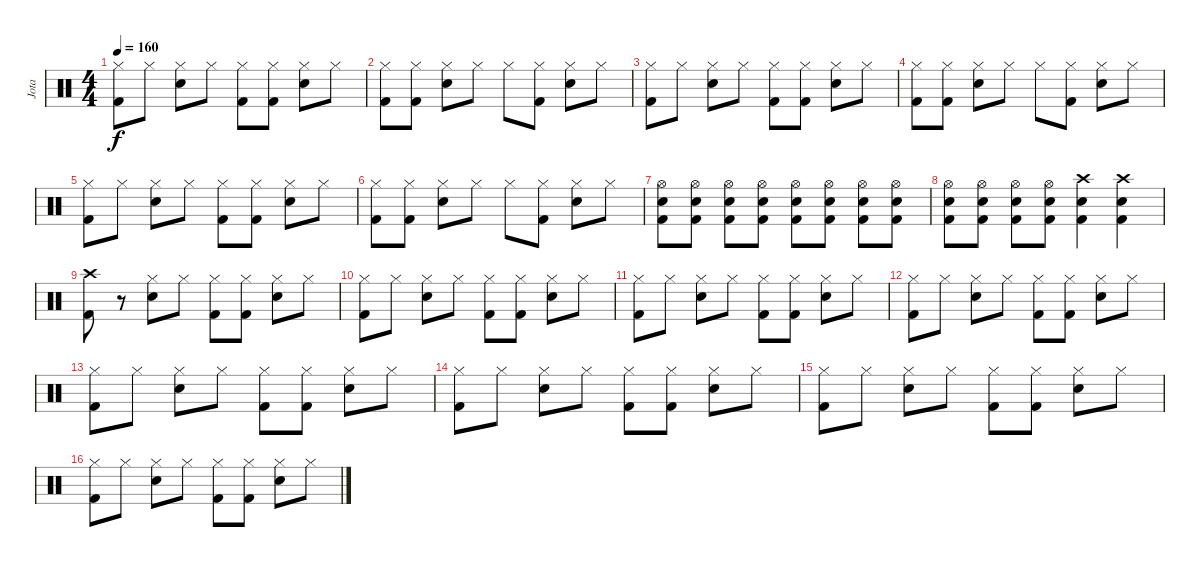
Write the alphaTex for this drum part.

\track ("Jota" "Jota") {instrument percussion}
\staff {score}
\articulation defaults
\ts (4 4)
\tempo 160
\clef neutral
\ks c
("Hi-Hat (closed)" "Kick (hit) 2").8{dy f} "Hi-Hat (closed)".8 ("Hi-Hat (closed)" "Electric Snare (hit)").8 "Hi-Hat (closed)".8 ("Hi-Hat (closed)" "Kick (hit) 2").8 ("Hi-Hat (closed)" "Kick (hit) 2").8 ("Hi-Hat (closed)" "Electric Snare (hit)").8 "Hi-Hat (closed)".8 |
("Hi-Hat (closed)" "Kick (hit) 2").8 ("Hi-Hat (closed)" "Kick (hit) 2").8 ("Hi-Hat (closed)" "Electric Snare (hit)").8 "Hi-Hat (closed)".8 "Hi-Hat (closed)".8 ("Hi-Hat (closed)" "Kick (hit) 2").8 ("Hi-Hat (closed)" "Electric Snare (hit)").8 "Hi-Hat (closed)".8 |
("Hi-Hat (closed)" "Kick (hit) 2").8 "Hi-Hat (closed)".8 ("Hi-Hat (closed)" "Electric Snare (hit)").8 "Hi-Hat (closed)".8 ("Hi-Hat (closed)" "Kick (hit) 2").8 ("Hi-Hat (closed)" "Kick (hit) 2").8 ("Hi-Hat (closed)" "Electric Snare (hit)").8 "Hi-Hat (closed)".8 |
("Hi-Hat (closed)" "Kick (hit) 2").8 ("Hi-Hat (closed)" "Kick (hit) 2").8 ("Hi-Hat (closed)" "Electric Snare (hit)").8 "Hi-Hat (closed)".8 "Hi-Hat (closed)".8 ("Hi-Hat (closed)" "Kick (hit) 2").8 ("Hi-Hat (closed)" "Electric Snare (hit)").8 "Hi-Hat (closed)".8 |
("Hi-Hat (closed)" "Kick (hit) 2").8 "Hi-Hat (closed)".8 ("Hi-Hat (closed)" "Electric Snare (hit)").8 "Hi-Hat (closed)".8 ("Hi-Hat (closed)" "Kick (hit) 2").8 ("Hi-Hat (closed)" "Kick (hit) 2").8 ("Hi-Hat (closed)" "Electric Snare (hit)").8 "Hi-Hat (closed)".8 |
("Hi-Hat (closed)" "Kick (hit) 2").8 ("Hi-Hat (closed)" "Kick (hit) 2").8 ("Hi-Hat (closed)" "Electric Snare (hit)").8 "Hi-Hat (closed)".8 "Hi-Hat (closed)".8 ("Hi-Hat (closed)" "Kick (hit) 2").8 ("Hi-Hat (closed)" "Electric Snare (hit)").8 "Hi-Hat (closed)".8 |
("Hi-Hat (open)" "Electric Snare (hit)" "Kick (hit) 2").8 ("Hi-Hat (open)" "Electric Snare (hit)" "Kick (hit) 2").8 ("Hi-Hat (open)" "Electric Snare (hit)" "Kick (hit) 2").8 ("Hi-Hat (open)" "Electric Snare (hit)" "Kick (hit) 2").8 ("Hi-Hat (open)" "Electric Snare (hit)" "Kick (hit) 2").8 ("Hi-Hat (open)" "Electric Snare (hit)" "Kick (hit) 2").8 ("Hi-Hat (open)" "Electric Snare (hit)" "Kick (hit) 2").8 ("Hi-Hat (open)" "Electric Snare (hit)" "Kick (hit) 2").8 |
("Hi-Hat (open)" "Electric Snare (hit)" "Kick (hit) 2").8 ("Hi-Hat (open)" "Electric Snare (hit)" "Kick (hit) 2").8 ("Hi-Hat (open)" "Electric Snare (hit)" "Kick (hit) 2").8 ("Hi-Hat (open)" "Electric Snare (hit)" "Kick (hit) 2").8 ("Crash high (hit)" "Electric Snare (hit)" "Kick (hit) 2").4 ("Crash high (hit)" "Electric Snare (hit)" "Kick (hit) 2").4 |
("Crash high (hit)" "Kick (hit) 2").8 r.8 ("Hi-Hat (closed)" "Electric Snare (hit)").8 "Hi-Hat (closed)".8 ("Hi-Hat (closed)" "Kick (hit) 2").8 ("Hi-Hat (closed)" "Kick (hit) 2").8 ("Hi-Hat (closed)" "Electric Snare (hit)").8 "Hi-Hat (closed)".8 |
("Hi-Hat (closed)" "Kick (hit) 2").8 "Hi-Hat (closed)".8 ("Hi-Hat (closed)" "Electric Snare (hit)").8 "Hi-Hat (closed)".8 ("Hi-Hat (closed)" "Kick (hit) 2").8 ("Hi-Hat (closed)" "Kick (hit) 2").8 ("Hi-Hat (closed)" "Electric Snare (hit)").8 "Hi-Hat (closed)".8 |
("Hi-Hat (closed)" "Kick (hit) 2").8 "Hi-Hat (closed)".8 ("Hi-Hat (closed)" "Electric Snare (hit)").8 "Hi-Hat (closed)".8 ("Hi-Hat (closed)" "Kick (hit) 2").8 ("Hi-Hat (closed)" "Kick (hit) 2").8 ("Hi-Hat (closed)" "Electric Snare (hit)").8 "Hi-Hat (closed)".8 |
("Hi-Hat (closed)" "Kick (hit) 2").8 "Hi-Hat (closed)".8 ("Hi-Hat (closed)" "Electric Snare (hit)").8 "Hi-Hat (closed)".8 ("Hi-Hat (closed)" "Kick (hit) 2").8 ("Hi-Hat (closed)" "Kick (hit) 2").8 ("Hi-Hat (closed)" "Electric Snare (hit)").8 "Hi-Hat (closed)".8 |
("Hi-Hat (closed)" "Kick (hit) 2").8 "Hi-Hat (closed)".8 ("Hi-Hat (closed)" "Electric Snare (hit)").8 "Hi-Hat (closed)".8 ("Hi-Hat (closed)" "Kick (hit) 2").8 ("Hi-Hat (closed)" "Kick (hit) 2").8 ("Hi-Hat (closed)" "Electric Snare (hit)").8 "Hi-Hat (closed)".8 |
("Hi-Hat (closed)" "Kick (hit) 2").8 "Hi-Hat (closed)".8 ("Hi-Hat (closed)" "Electric Snare (hit)").8 "Hi-Hat (closed)".8 ("Hi-Hat (closed)" "Kick (hit) 2").8 ("Hi-Hat (closed)" "Kick (hit) 2").8 ("Hi-Hat (closed)" "Electric Snare (hit)").8 "Hi-Hat (closed)".8 |
("Hi-Hat (closed)" "Kick (hit) 2").8 "Hi-Hat (closed)".8 ("Hi-Hat (closed)" "Electric Snare (hit)").8 "Hi-Hat (closed)".8 ("Hi-Hat (closed)" "Kick (hit) 2").8 ("Hi-Hat (closed)" "Kick (hit) 2").8 ("Hi-Hat (closed)" "Electric Snare (hit)").8 "Hi-Hat (closed)".8 |
("Hi-Hat (closed)" "Kick (hit) 2").8 "Hi-Hat (closed)".8 ("Hi-Hat (closed)" "Electric Snare (hit)").8 "Hi-Hat (closed)".8 ("Hi-Hat (closed)" "Kick (hit) 2").8 ("Hi-Hat (closed)" "Kick (hit) 2").8 ("Hi-Hat (closed)" "Electric Snare (hit)").8 "Hi-Hat (closed)".8
